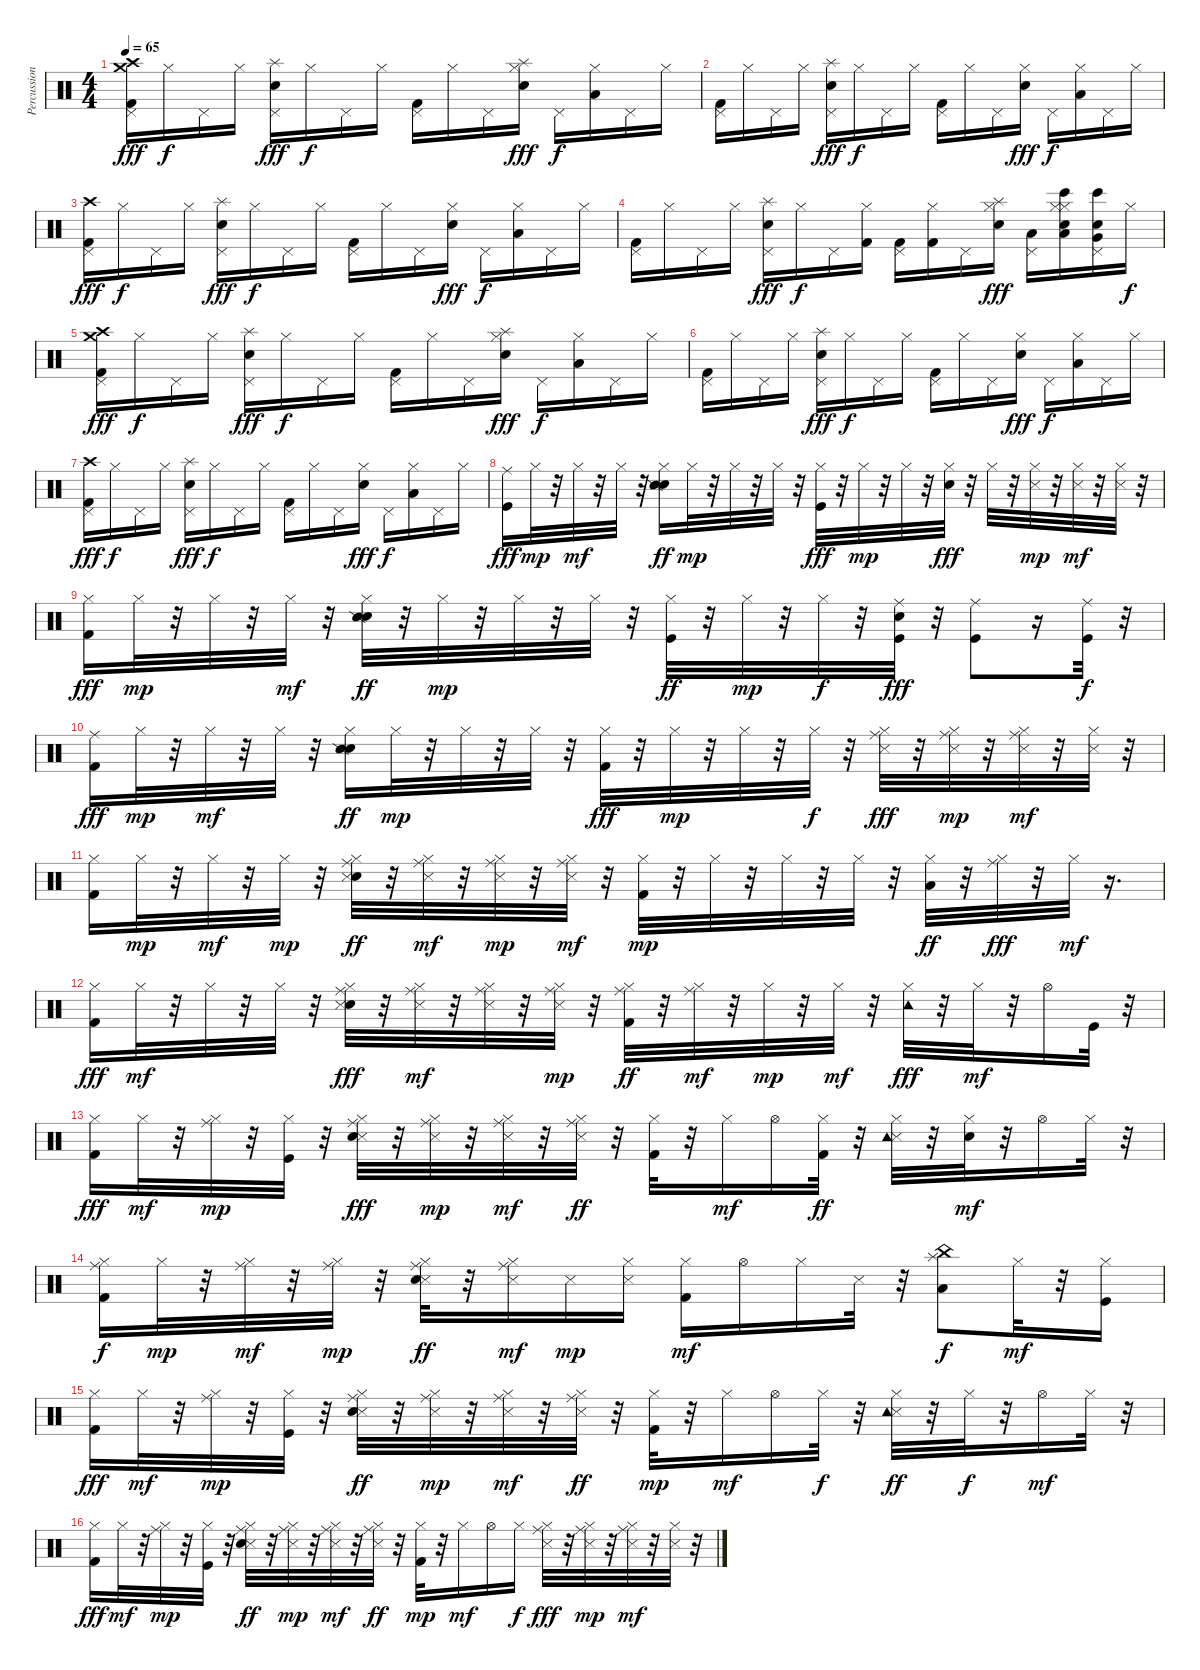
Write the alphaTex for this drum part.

\track ("Percussion" "Percussion") {instrument percussion}
\staff {score}
\articulation defaults
\ts (4 4)
\tempo 65
\clef neutral
\ks c
("Pedal Hi-Hat (hit)" "Kick (hit) 2" "Crash medium (hit)" "Crash high (hit)").16{dy fff} "Hi-Hat (closed)".16{dy f} "Pedal Hi-Hat (hit)".16 "Hi-Hat (closed)".16 ("Pedal Hi-Hat (hit)" "Electric Snare (hit)" "Splash (hit)").16{dy fff} "Hi-Hat (closed)".16{dy f} "Pedal Hi-Hat (hit)".16 "Hi-Hat (closed)".16 ("Pedal Hi-Hat (hit)" "Kick (hit) 2").16 "Hi-Hat (closed)".16 "Pedal Hi-Hat (hit)".16 ("Hi-Hat (closed)" "Splash (hit)" "Electric Snare (hit)").16{dy fff} "Pedal Hi-Hat (hit)".16{dy f} ("Hi-Hat (closed)" "Low Floor Tom (hit)").16 "Pedal Hi-Hat (hit)".16 "Hi-Hat (closed)".16 |
("Pedal Hi-Hat (hit)" "Kick (hit) 2").16 "Hi-Hat (closed)".16 "Pedal Hi-Hat (hit)".16 "Hi-Hat (closed)".16 ("Pedal Hi-Hat (hit)" "Electric Snare (hit)" "Splash (hit)").16{dy fff} "Hi-Hat (closed)".16{dy f} "Pedal Hi-Hat (hit)".16 "Hi-Hat (closed)".16 ("Pedal Hi-Hat (hit)" "Kick (hit) 2").16 "Hi-Hat (closed)".16 "Pedal Hi-Hat (hit)".16 ("Hi-Hat (closed)" "Electric Snare (hit)").16{dy fff} "Pedal Hi-Hat (hit)".16{dy f} ("Hi-Hat (closed)" "Low Floor Tom (hit)").16 "Pedal Hi-Hat (hit)".16 "Hi-Hat (closed)".16 |
("Pedal Hi-Hat (hit)" "Kick (hit) 2" "Crash high (hit)").16{dy fff} "Hi-Hat (closed)".16{dy f} "Pedal Hi-Hat (hit)".16 "Hi-Hat (closed)".16 ("Pedal Hi-Hat (hit)" "Electric Snare (hit)" "Splash (hit)").16{dy fff} "Hi-Hat (closed)".16{dy f} "Pedal Hi-Hat (hit)".16 "Hi-Hat (closed)".16 ("Pedal Hi-Hat (hit)" "Kick (hit) 2").16 "Hi-Hat (closed)".16 "Pedal Hi-Hat (hit)".16 ("Hi-Hat (closed)" "Electric Snare (hit)").16{dy fff} "Pedal Hi-Hat (hit)".16{dy f} ("Hi-Hat (closed)" "Low Floor Tom (hit)").16 "Pedal Hi-Hat (hit)".16 "Hi-Hat (closed)".16 |
("Pedal Hi-Hat (hit)" "Kick (hit) 2").16 "Hi-Hat (closed)".16 "Pedal Hi-Hat (hit)".16 "Hi-Hat (closed)".16 ("Pedal Hi-Hat (hit)" "Electric Snare (hit)" "Splash (hit)").16{dy fff} "Hi-Hat (closed)".16{dy f} "Pedal Hi-Hat (hit)".16 ("Hi-Hat (closed)" "Kick (hit) 2").16 ("Pedal Hi-Hat (hit)" "Kick (hit) 2").16 ("Hi-Hat (closed)" "Kick (hit) 2").16 "Pedal Hi-Hat (hit)".16 ("Hi-Hat (closed)" "Splash (hit)" "Electric Snare (hit)").16{dy fff} ("Pedal Hi-Hat (hit)" "Low Floor Tom (hit)").16 ("Hi-Hat (closed)" "Hand Clap (hit)" "Low Tom (hit)" "Hi-Hat (closed)" "Bongo High (hit)").16 ("Pedal Hi-Hat (hit)" "Bongo High (hit)" "Very Low Tom (hit)" "Hand Clap (hit)").16 "Hi-Hat (closed)".16{dy f} |
("Pedal Hi-Hat (hit)" "Kick (hit) 2" "Crash medium (hit)" "Crash high (hit)").16{dy fff} "Hi-Hat (closed)".16{dy f} "Pedal Hi-Hat (hit)".16 "Hi-Hat (closed)".16 ("Pedal Hi-Hat (hit)" "Electric Snare (hit)" "Splash (hit)").16{dy fff} "Hi-Hat (closed)".16{dy f} "Pedal Hi-Hat (hit)".16 "Hi-Hat (closed)".16 ("Pedal Hi-Hat (hit)" "Kick (hit) 2").16 "Hi-Hat (closed)".16 "Pedal Hi-Hat (hit)".16 ("Hi-Hat (closed)" "Splash (hit)" "Electric Snare (hit)").16{dy fff} "Pedal Hi-Hat (hit)".16{dy f} ("Hi-Hat (closed)" "Low Floor Tom (hit)").16 "Pedal Hi-Hat (hit)".16 "Hi-Hat (closed)".16 |
("Pedal Hi-Hat (hit)" "Kick (hit) 2").16 "Hi-Hat (closed)".16 "Pedal Hi-Hat (hit)".16 "Hi-Hat (closed)".16 ("Pedal Hi-Hat (hit)" "Electric Snare (hit)" "Splash (hit)").16{dy fff} "Hi-Hat (closed)".16{dy f} "Pedal Hi-Hat (hit)".16 "Hi-Hat (closed)".16 ("Pedal Hi-Hat (hit)" "Kick (hit) 2").16 "Hi-Hat (closed)".16 "Pedal Hi-Hat (hit)".16 ("Hi-Hat (closed)" "Electric Snare (hit)").16{dy fff} "Pedal Hi-Hat (hit)".16{dy f} ("Hi-Hat (closed)" "Low Floor Tom (hit)").16 "Pedal Hi-Hat (hit)".16 "Hi-Hat (closed)".16 |
("Pedal Hi-Hat (hit)" "Kick (hit) 2" "Crash high (hit)").16{dy fff} "Hi-Hat (closed)".16{dy f} "Pedal Hi-Hat (hit)".16 "Hi-Hat (closed)".16 ("Pedal Hi-Hat (hit)" "Electric Snare (hit)" "Splash (hit)").16{dy fff} "Hi-Hat (closed)".16{dy f} "Pedal Hi-Hat (hit)".16 "Hi-Hat (closed)".16 ("Pedal Hi-Hat (hit)" "Kick (hit) 2").16 "Hi-Hat (closed)".16 "Pedal Hi-Hat (hit)".16 ("Hi-Hat (closed)" "Electric Snare (hit)").16{dy fff} "Pedal Hi-Hat (hit)".16{dy f} ("Hi-Hat (closed)" "Low Floor Tom (hit)").16 "Pedal Hi-Hat (hit)".16 "Hi-Hat (closed)".16 |
("Ride (middle)" "Kick (hit)").16{dy fff} "Hi-Hat (closed)".32{dy mp} r.32 "Hi-Hat (closed)".32{dy mf} r.32 "Hi-Hat (closed)".32 r.32 ("Hi-Hat (closed)" "Electric Snare (hit)" "Snare (side stick) 2").16{dy ff} "Hi-Hat (closed)".32{dy mp} r.32 "Hi-Hat (closed)".32 r.32 "Hi-Hat (closed)".32 r.32 ("Hi-Hat (closed)" "Kick (hit)").32{dy fff} r.32 "Hi-Hat (closed)".32{dy mp} r.32 "Hi-Hat (closed)".32 r.32 ("Hi-Hat (closed)" "Electric Snare (hit)").32{dy fff} r.32 "Hi-Hat (closed)".32 r.32 ("Hi-Hat (closed)" "Snare (side stick) 3").32{dy mp} r.32 ("Snare (side stick) 3" "Hi-Hat (closed)").32{dy mf} r.32 ("Hi-Hat (closed)" "Snare (side stick) 3").32 r.32 |
("Hi-Hat (closed)" "Kick (hit) 2").16{dy fff} "Hi-Hat (closed)".32{dy mp} r.32 "Hi-Hat (closed)".32 r.32 "Hi-Hat (closed)".32{dy mf} r.32 ("Hi-Hat (closed)" "Electric Snare (hit)" "Snare (side stick) 2").32{dy ff} r.32 "Hi-Hat (closed)".32{dy mp} r.32 "Hi-Hat (closed)".32 r.32 "Hi-Hat (closed)".32 r.32 ("Hi-Hat (closed)" "Kick (hit)").32{dy ff} r.32 "Hi-Hat (closed)".32{dy mp} r.32 "Hi-Hat (closed)".32{dy f} r.32 ("Ride (middle)" "Kick (hit)" "Hand Clap (hit)").32{dy fff} r.32 ("Ride (middle)" "Kick (hit)").8 r.16 ("Kick (hit)" "Ride (middle)").32{dy f} r.32 |
("Ride (middle)" "Kick (hit) 2").16{dy fff} "Hi-Hat (closed)".32{dy mp} r.32 "Hi-Hat (closed)".32{dy mf} r.32 "Hi-Hat (closed)".32 r.32 ("Hi-Hat (closed)" "Hand Clap (hit)" "Snare (side stick) 2").16{dy ff} "Hi-Hat (closed)".32{dy mp} r.32 "Hi-Hat (closed)".32 r.32 "Hi-Hat (closed)".32 r.32 ("Hi-Hat (closed)" "Kick (hit) 2").32{dy fff} r.32 "Hi-Hat (closed)".32{dy mp} r.32 "Hi-Hat (closed)".32 r.32 "Hi-Hat (closed)".32{dy f} r.32 ("Hi-Hat (closed)" "Ride (middle)" "Snare (side stick) 3").32{dy fff} r.32 ("Hi-Hat (closed)" "Snare (side stick) 3" "Ride (middle)").32{dy mp} r.32 ("Snare (side stick) 3" "Hi-Hat (closed)" "Ride (middle)").32{dy mf} r.32 ("Hi-Hat (closed)" "Snare (side stick) 3").32 r.32 |
("Hi-Hat (closed)" "Kick (hit) 2").16 "Hi-Hat (closed)".32{dy mp} r.32 "Hi-Hat (closed)".32{dy mf} r.32 "Hi-Hat (closed)".32{dy mp} r.32 ("Hand Clap (hit)" "Snare (side stick) 3" "Ride (middle)" "Hi-Hat (closed)").32{dy ff} r.32 ("Hi-Hat (closed)" "Ride (middle)" "Snare (side stick) 3").32{dy mf} r.32 ("Ride (middle)" "Hi-Hat (closed)" "Snare (side stick) 3").32{dy mp} r.32 ("Hi-Hat (closed)" "Snare (side stick) 3" "Ride (middle)").32{dy mf} r.32 ("Hi-Hat (closed)" "Kick (hit) 2").32{dy mp} r.32 "Hi-Hat (closed)".32 r.32 "Hi-Hat (closed)".32 r.32 "Hi-Hat (closed)".32 r.32 ("Hi-Hat (closed)" "Low Tom (hit)").32{dy ff} r.32 ("Hi-Hat (closed)" "Ride (middle)").32{dy fff} r.32 "Hi-Hat (closed)".32{dy mf} r.16{d} |
("Kick (hit) 2" "Hi-Hat (closed)").16{dy fff} "Hi-Hat (closed)".32{dy mf} r.32 "Hi-Hat (closed)".32 r.32 "Hi-Hat (closed)".32 r.32 ("Hand Clap (hit)" "Ride (middle)" "Hi-Hat (closed)" "Snare (side stick) 3").32{dy fff} r.32 ("Hi-Hat (closed)" "Snare (side stick) 3" "Ride (middle)").32{dy mf} r.32 ("Ride (middle)" "Snare (side stick) 3" "Hi-Hat (closed)").32 r.32 ("Ride (middle)" "Hi-Hat (closed)" "Snare (side stick) 3").32{dy mp} r.32 ("Ride (middle)" "Hi-Hat (closed)" "Kick (hit) 2").32{dy ff} r.32 ("Ride (middle)" "Hi-Hat (closed)").32{dy mf} r.32 "Hi-Hat (closed)".32{dy mp} r.32 "Hi-Hat (closed)".32{dy mf} r.32 ("Hi-Hat (closed)" "Tambourine (hit)").32{dy fff} r.32 "Hi-Hat (closed)".32{dy mf} r.32 "Hi-Hat (open)".16 "Kick (hit)".32 r.32 |
("Hi-Hat (closed)" "Kick (hit) 2").16{dy fff} "Hi-Hat (closed)".32{dy mf} r.32 ("Hi-Hat (closed)" "Ride (middle)").32{dy mp} r.32 ("Hi-Hat (closed)" "Kick (hit)").32 r.32 ("Snare (side stick) 3" "Hi-Hat (closed)" "Ride (middle)" "Hand Clap (hit)").32{dy fff} r.32 ("Hi-Hat (closed)" "Ride (middle)" "Snare (side stick) 3").32{dy mp} r.32 ("Ride (middle)" "Snare (side stick) 3" "Hi-Hat (closed)").32{dy mf} r.32 ("Ride (middle)" "Hi-Hat (closed)" "Snare (side stick) 3").32{dy ff} r.32 ("Hi-Hat (closed)" "Kick (hit) 2").32 r.32 "Hi-Hat (closed)".16{dy mf} "Hi-Hat (open)".16 ("Hi-Hat (closed)" "Kick (hit) 2").32{dy ff} r.32 ("Snare (side stick) 3" "Tambourine (hit)" "Hi-Hat (closed)").32 r.32 ("Hi-Hat (closed)" "Electric Snare (hit)").32{dy mf} r.32 "Hi-Hat (open)".16 "Hi-Hat (closed)".32 r.32 |
("Kick (hit) 2" "Hi-Hat (closed)" "Ride (middle)").16{dy f} "Hi-Hat (closed)".32{dy mp} r.32 ("Ride (middle)" "Hi-Hat (closed)").32{dy mf} r.32 ("Hi-Hat (closed)" "Ride (middle)").32{dy mp} r.32 ("Snare (side stick) 3" "Hi-Hat (closed)" "Ride (middle)" "Hand Clap (hit)").32{dy ff} r.32 ("Hi-Hat (closed)" "Snare (side stick) 3" "Ride (middle)").16{dy mf} "Snare (side stick) 3".16{dy mp} ("Snare (side stick) 3" "Hi-Hat (closed)").16 ("Hi-Hat (closed)" "Kick (hit) 2").16{dy mf} "Hi-Hat (open)".16 "Hi-Hat (closed)".16 "Snare (side stick) 3".32 r.32 ("Low Tom (hit)" "China (hit)" "Splash (hit)").8{dy f} "Hi-Hat (closed)".32{dy mf} r.32 ("Kick (hit)" "Hi-Hat (closed)").16 |
("Hi-Hat (closed)" "Kick (hit) 2").16{dy fff} "Hi-Hat (closed)".32{dy mf} r.32 ("Hi-Hat (closed)" "Ride (middle)").32{dy mp} r.32 ("Hi-Hat (closed)" "Kick (hit)").32 r.32 ("Snare (side stick) 3" "Hi-Hat (closed)" "Ride (middle)" "Hand Clap (hit)").32{dy ff} r.32 ("Hi-Hat (closed)" "Ride (middle)" "Snare (side stick) 3").32{dy mp} r.32 ("Ride (middle)" "Snare (side stick) 3" "Hi-Hat (closed)").32{dy mf} r.32 ("Ride (middle)" "Hi-Hat (closed)" "Snare (side stick) 3").32{dy ff} r.32 ("Hi-Hat (closed)" "Kick (hit) 2").32{dy mp} r.32 "Hi-Hat (closed)".16{dy mf} "Hi-Hat (open)".16 "Hi-Hat (closed)".32{dy f} r.32 ("Snare (side stick) 3" "Tambourine (hit)" "Hi-Hat (closed)").32{dy ff} r.32 "Hi-Hat (closed)".32{dy f} r.32 "Hi-Hat (open)".16{dy mf} "Hi-Hat (closed)".32 r.32 |
("Hi-Hat (closed)" "Kick (hit) 2").16{dy fff} "Hi-Hat (closed)".32{dy mf} r.32 ("Hi-Hat (closed)" "Ride (middle)").32{dy mp} r.32 ("Hi-Hat (closed)" "Kick (hit)").32 r.32 ("Snare (side stick) 3" "Hi-Hat (closed)" "Ride (middle)" "Hand Clap (hit)").32{dy ff} r.32 ("Hi-Hat (closed)" "Ride (middle)" "Snare (side stick) 3").32{dy mp} r.32 ("Ride (middle)" "Snare (side stick) 3" "Hi-Hat (closed)").32{dy mf} r.32 ("Ride (middle)" "Hi-Hat (closed)" "Snare (side stick) 3").32{dy ff} r.32 ("Hi-Hat (closed)" "Kick (hit) 2").32{dy mp} r.32 "Hi-Hat (closed)".16{dy mf} "Hi-Hat (open)".16 "Hi-Hat (closed)".16{dy f} ("Hi-Hat (closed)" "Ride (middle)" "Snare (side stick) 3").32{dy fff} r.32 ("Hi-Hat (closed)" "Snare (side stick) 3" "Ride (middle)").32{dy mp} r.32 ("Snare (side stick) 3" "Hi-Hat (closed)" "Ride (middle)").32{dy mf} r.32 ("Hi-Hat (closed)" "Snare (side stick) 3").32 r.32
